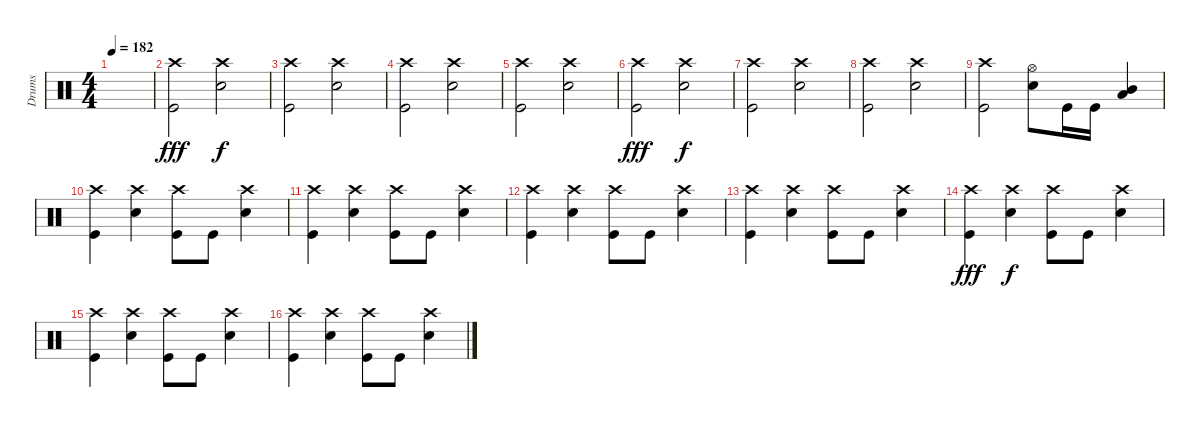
\track ("Drums" "Drums") {instrument percussion}
\staff {score}
\articulation defaults
\ts (4 4)
\tempo 182
\clef neutral
\ks c
|
("Crash high (hit)" "Kick (hit)").2{dy fff} ("Crash high (hit)" "Electric Snare (hit)").2{dy f} |
("Crash high (hit)" "Kick (hit)").2 ("Crash high (hit)" "Electric Snare (hit)").2 |
("Crash high (hit)" "Kick (hit)").2 ("Crash high (hit)" "Electric Snare (hit)").2 |
("Crash high (hit)" "Kick (hit)").2 ("Crash high (hit)" "Electric Snare (hit)").2 |
("Crash high (hit)" "Kick (hit)").2{dy fff} ("Crash high (hit)" "Electric Snare (hit)").2{dy f} |
("Crash high (hit)" "Kick (hit)").2 ("Crash high (hit)" "Electric Snare (hit)").2 |
("Crash high (hit)" "Kick (hit)").2 ("Crash high (hit)" "Electric Snare (hit)").2 |
("Crash high (hit)" "Kick (hit)").2 ("Hi-Hat (open)" "Electric Snare (hit)").8 "Kick (hit)".16 "Kick (hit)".16 ("Mid Tom (hit)" "Low Tom (hit)").4 |
("Crash high (hit)" "Kick (hit)").4 ("Crash high (hit)" "Electric Snare (hit)").4 ("Crash high (hit)" "Kick (hit)").8 "Kick (hit)".8 ("Crash high (hit)" "Electric Snare (hit)").4 |
("Crash high (hit)" "Kick (hit)").4 ("Crash high (hit)" "Electric Snare (hit)").4 ("Crash high (hit)" "Kick (hit)").8 "Kick (hit)".8 ("Crash high (hit)" "Electric Snare (hit)").4 |
("Crash high (hit)" "Kick (hit)").4 ("Crash high (hit)" "Electric Snare (hit)").4 ("Crash high (hit)" "Kick (hit)").8 "Kick (hit)".8 ("Crash high (hit)" "Electric Snare (hit)").4 |
("Crash high (hit)" "Kick (hit)").4 ("Crash high (hit)" "Electric Snare (hit)").4 ("Crash high (hit)" "Kick (hit)").8 "Kick (hit)".8 ("Crash high (hit)" "Electric Snare (hit)").4 |
("Crash high (hit)" "Kick (hit)").4{dy fff} ("Crash high (hit)" "Electric Snare (hit)").4{dy f} ("Crash high (hit)" "Kick (hit)").8 "Kick (hit)".8 ("Crash high (hit)" "Electric Snare (hit)").4 |
("Crash high (hit)" "Kick (hit)").4 ("Crash high (hit)" "Electric Snare (hit)").4 ("Crash high (hit)" "Kick (hit)").8 "Kick (hit)".8 ("Crash high (hit)" "Electric Snare (hit)").4 |
("Crash high (hit)" "Kick (hit)").4 ("Crash high (hit)" "Electric Snare (hit)").4 ("Crash high (hit)" "Kick (hit)").8 "Kick (hit)".8 ("Crash high (hit)" "Electric Snare (hit)").4
